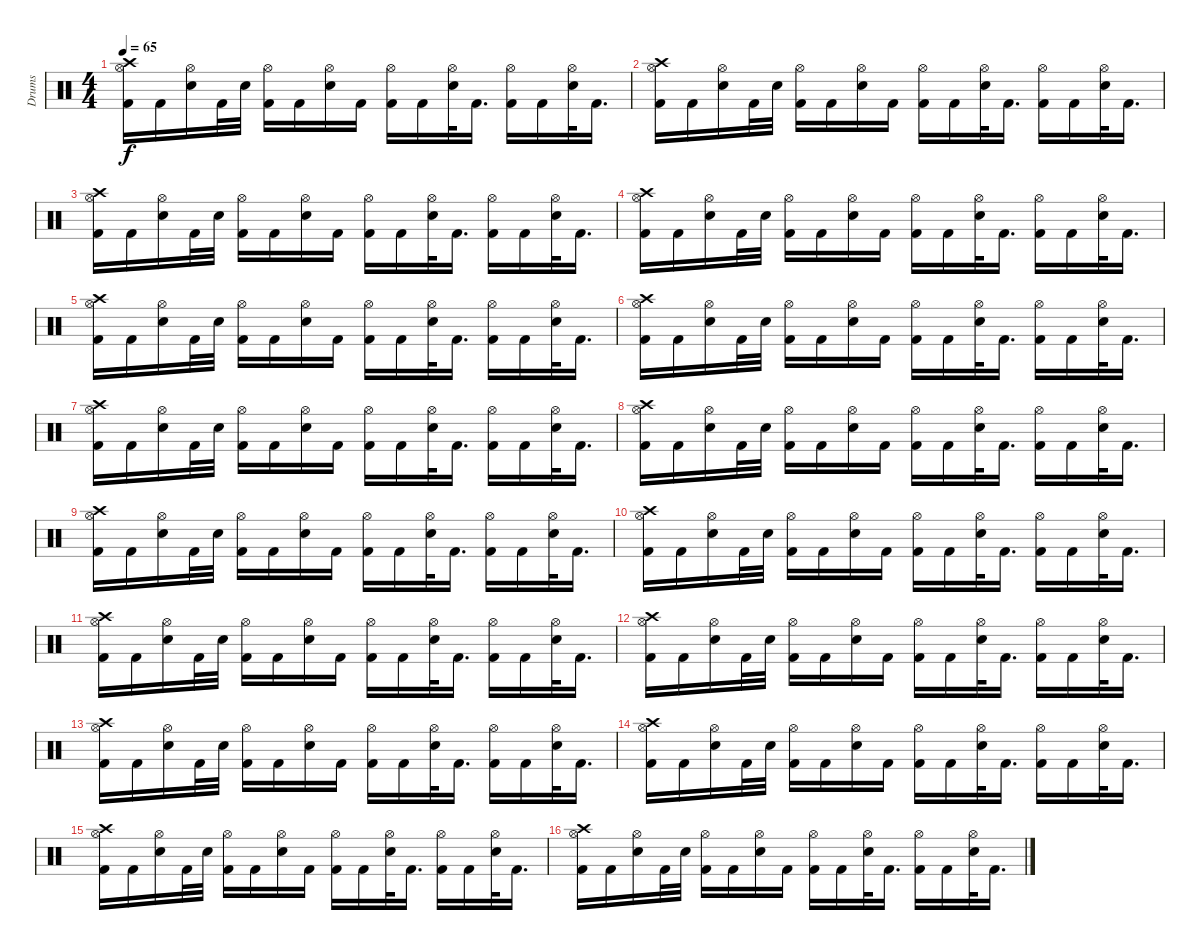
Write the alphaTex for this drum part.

\track ("Drums" "Drums") {instrument percussion}
\staff {score}
\articulation defaults
\ts (4 4)
\tempo 65
\clef neutral
\ks c
("Crash high (hit)" "Hi-Hat (open)" "Kick (hit) 2").16{dy f} "Kick (hit) 2".16 ("Hi-Hat (open)" "Snare (hit) 2").16 "Kick (hit) 2".32 "Snare (hit) 2".32 ("Hi-Hat (open)" "Kick (hit) 2").16 "Kick (hit) 2".16 ("Hi-Hat (open)" "Snare (hit) 2").16 "Kick (hit) 2".16 ("Hi-Hat (open)" "Kick (hit) 2").16 "Kick (hit) 2".16 ("Hi-Hat (open)" "Snare (hit) 2").32 "Kick (hit) 2".16{d} ("Hi-Hat (open)" "Kick (hit) 2").16 "Kick (hit) 2".16 ("Hi-Hat (open)" "Snare (hit) 2").32 "Kick (hit) 2".16{d} |
("Crash high (hit)" "Hi-Hat (open)" "Kick (hit) 2").16 "Kick (hit) 2".16 ("Hi-Hat (open)" "Snare (hit) 2").16 "Kick (hit) 2".32 "Snare (hit) 2".32 ("Hi-Hat (open)" "Kick (hit) 2").16 "Kick (hit) 2".16 ("Hi-Hat (open)" "Snare (hit) 2").16 "Kick (hit) 2".16 ("Hi-Hat (open)" "Kick (hit) 2").16 "Kick (hit) 2".16 ("Hi-Hat (open)" "Snare (hit) 2").32 "Kick (hit) 2".16{d} ("Hi-Hat (open)" "Kick (hit) 2").16 "Kick (hit) 2".16 ("Hi-Hat (open)" "Snare (hit) 2").32 "Kick (hit) 2".16{d} |
("Crash high (hit)" "Hi-Hat (open)" "Kick (hit) 2").16 "Kick (hit) 2".16 ("Hi-Hat (open)" "Snare (hit) 2").16 "Kick (hit) 2".32 "Snare (hit) 2".32 ("Hi-Hat (open)" "Kick (hit) 2").16 "Kick (hit) 2".16 ("Hi-Hat (open)" "Snare (hit) 2").16 "Kick (hit) 2".16 ("Hi-Hat (open)" "Kick (hit) 2").16 "Kick (hit) 2".16 ("Hi-Hat (open)" "Snare (hit) 2").32 "Kick (hit) 2".16{d} ("Hi-Hat (open)" "Kick (hit) 2").16 "Kick (hit) 2".16 ("Hi-Hat (open)" "Snare (hit) 2").32 "Kick (hit) 2".16{d} |
("Crash high (hit)" "Hi-Hat (open)" "Kick (hit) 2").16 "Kick (hit) 2".16 ("Hi-Hat (open)" "Snare (hit) 2").16 "Kick (hit) 2".32 "Snare (hit) 2".32 ("Hi-Hat (open)" "Kick (hit) 2").16 "Kick (hit) 2".16 ("Hi-Hat (open)" "Snare (hit) 2").16 "Kick (hit) 2".16 ("Hi-Hat (open)" "Kick (hit) 2").16 "Kick (hit) 2".16 ("Hi-Hat (open)" "Snare (hit) 2").32 "Kick (hit) 2".16{d} ("Hi-Hat (open)" "Kick (hit) 2").16 "Kick (hit) 2".16 ("Hi-Hat (open)" "Snare (hit) 2").32 "Kick (hit) 2".16{d} |
("Crash high (hit)" "Hi-Hat (open)" "Kick (hit) 2").16 "Kick (hit) 2".16 ("Hi-Hat (open)" "Snare (hit) 2").16 "Kick (hit) 2".32 "Snare (hit) 2".32 ("Hi-Hat (open)" "Kick (hit) 2").16 "Kick (hit) 2".16 ("Hi-Hat (open)" "Snare (hit) 2").16 "Kick (hit) 2".16 ("Hi-Hat (open)" "Kick (hit) 2").16 "Kick (hit) 2".16 ("Hi-Hat (open)" "Snare (hit) 2").32 "Kick (hit) 2".16{d} ("Hi-Hat (open)" "Kick (hit) 2").16 "Kick (hit) 2".16 ("Hi-Hat (open)" "Snare (hit) 2").32 "Kick (hit) 2".16{d} |
("Crash high (hit)" "Hi-Hat (open)" "Kick (hit) 2").16 "Kick (hit) 2".16 ("Hi-Hat (open)" "Snare (hit) 2").16 "Kick (hit) 2".32 "Snare (hit) 2".32 ("Hi-Hat (open)" "Kick (hit) 2").16 "Kick (hit) 2".16 ("Hi-Hat (open)" "Snare (hit) 2").16 "Kick (hit) 2".16 ("Hi-Hat (open)" "Kick (hit) 2").16 "Kick (hit) 2".16 ("Hi-Hat (open)" "Snare (hit) 2").32 "Kick (hit) 2".16{d} ("Hi-Hat (open)" "Kick (hit) 2").16 "Kick (hit) 2".16 ("Hi-Hat (open)" "Snare (hit) 2").32 "Kick (hit) 2".16{d} |
("Crash high (hit)" "Hi-Hat (open)" "Kick (hit) 2").16 "Kick (hit) 2".16 ("Hi-Hat (open)" "Snare (hit) 2").16 "Kick (hit) 2".32 "Snare (hit) 2".32 ("Hi-Hat (open)" "Kick (hit) 2").16 "Kick (hit) 2".16 ("Hi-Hat (open)" "Snare (hit) 2").16 "Kick (hit) 2".16 ("Hi-Hat (open)" "Kick (hit) 2").16 "Kick (hit) 2".16 ("Hi-Hat (open)" "Snare (hit) 2").32 "Kick (hit) 2".16{d} ("Hi-Hat (open)" "Kick (hit) 2").16 "Kick (hit) 2".16 ("Hi-Hat (open)" "Snare (hit) 2").32 "Kick (hit) 2".16{d} |
("Crash high (hit)" "Hi-Hat (open)" "Kick (hit) 2").16 "Kick (hit) 2".16 ("Hi-Hat (open)" "Snare (hit) 2").16 "Kick (hit) 2".32 "Snare (hit) 2".32 ("Hi-Hat (open)" "Kick (hit) 2").16 "Kick (hit) 2".16 ("Hi-Hat (open)" "Snare (hit) 2").16 "Kick (hit) 2".16 ("Hi-Hat (open)" "Kick (hit) 2").16 "Kick (hit) 2".16 ("Hi-Hat (open)" "Snare (hit) 2").32 "Kick (hit) 2".16{d} ("Hi-Hat (open)" "Kick (hit) 2").16 "Kick (hit) 2".16 ("Hi-Hat (open)" "Snare (hit) 2").32 "Kick (hit) 2".16{d} |
("Crash high (hit)" "Hi-Hat (open)" "Kick (hit) 2").16 "Kick (hit) 2".16 ("Hi-Hat (open)" "Snare (hit) 2").16 "Kick (hit) 2".32 "Snare (hit) 2".32 ("Hi-Hat (open)" "Kick (hit) 2").16 "Kick (hit) 2".16 ("Hi-Hat (open)" "Snare (hit) 2").16 "Kick (hit) 2".16 ("Hi-Hat (open)" "Kick (hit) 2").16 "Kick (hit) 2".16 ("Hi-Hat (open)" "Snare (hit) 2").32 "Kick (hit) 2".16{d} ("Hi-Hat (open)" "Kick (hit) 2").16 "Kick (hit) 2".16 ("Hi-Hat (open)" "Snare (hit) 2").32 "Kick (hit) 2".16{d} |
("Crash high (hit)" "Hi-Hat (open)" "Kick (hit) 2").16 "Kick (hit) 2".16 ("Hi-Hat (open)" "Snare (hit) 2").16 "Kick (hit) 2".32 "Snare (hit) 2".32 ("Hi-Hat (open)" "Kick (hit) 2").16 "Kick (hit) 2".16 ("Hi-Hat (open)" "Snare (hit) 2").16 "Kick (hit) 2".16 ("Hi-Hat (open)" "Kick (hit) 2").16 "Kick (hit) 2".16 ("Hi-Hat (open)" "Snare (hit) 2").32 "Kick (hit) 2".16{d} ("Hi-Hat (open)" "Kick (hit) 2").16 "Kick (hit) 2".16 ("Hi-Hat (open)" "Snare (hit) 2").32 "Kick (hit) 2".16{d} |
("Crash high (hit)" "Hi-Hat (open)" "Kick (hit) 2").16 "Kick (hit) 2".16 ("Hi-Hat (open)" "Snare (hit) 2").16 "Kick (hit) 2".32 "Snare (hit) 2".32 ("Hi-Hat (open)" "Kick (hit) 2").16 "Kick (hit) 2".16 ("Hi-Hat (open)" "Snare (hit) 2").16 "Kick (hit) 2".16 ("Hi-Hat (open)" "Kick (hit) 2").16 "Kick (hit) 2".16 ("Hi-Hat (open)" "Snare (hit) 2").32 "Kick (hit) 2".16{d} ("Hi-Hat (open)" "Kick (hit) 2").16 "Kick (hit) 2".16 ("Hi-Hat (open)" "Snare (hit) 2").32 "Kick (hit) 2".16{d} |
("Crash high (hit)" "Hi-Hat (open)" "Kick (hit) 2").16 "Kick (hit) 2".16 ("Hi-Hat (open)" "Snare (hit) 2").16 "Kick (hit) 2".32 "Snare (hit) 2".32 ("Hi-Hat (open)" "Kick (hit) 2").16 "Kick (hit) 2".16 ("Hi-Hat (open)" "Snare (hit) 2").16 "Kick (hit) 2".16 ("Hi-Hat (open)" "Kick (hit) 2").16 "Kick (hit) 2".16 ("Hi-Hat (open)" "Snare (hit) 2").32 "Kick (hit) 2".16{d} ("Hi-Hat (open)" "Kick (hit) 2").16 "Kick (hit) 2".16 ("Hi-Hat (open)" "Snare (hit) 2").32 "Kick (hit) 2".16{d} |
("Crash high (hit)" "Hi-Hat (open)" "Kick (hit) 2").16 "Kick (hit) 2".16 ("Hi-Hat (open)" "Snare (hit) 2").16 "Kick (hit) 2".32 "Snare (hit) 2".32 ("Hi-Hat (open)" "Kick (hit) 2").16 "Kick (hit) 2".16 ("Hi-Hat (open)" "Snare (hit) 2").16 "Kick (hit) 2".16 ("Hi-Hat (open)" "Kick (hit) 2").16 "Kick (hit) 2".16 ("Hi-Hat (open)" "Snare (hit) 2").32 "Kick (hit) 2".16{d} ("Hi-Hat (open)" "Kick (hit) 2").16 "Kick (hit) 2".16 ("Hi-Hat (open)" "Snare (hit) 2").32 "Kick (hit) 2".16{d} |
("Crash high (hit)" "Hi-Hat (open)" "Kick (hit) 2").16 "Kick (hit) 2".16 ("Hi-Hat (open)" "Snare (hit) 2").16 "Kick (hit) 2".32 "Snare (hit) 2".32 ("Hi-Hat (open)" "Kick (hit) 2").16 "Kick (hit) 2".16 ("Hi-Hat (open)" "Snare (hit) 2").16 "Kick (hit) 2".16 ("Hi-Hat (open)" "Kick (hit) 2").16 "Kick (hit) 2".16 ("Hi-Hat (open)" "Snare (hit) 2").32 "Kick (hit) 2".16{d} ("Hi-Hat (open)" "Kick (hit) 2").16 "Kick (hit) 2".16 ("Hi-Hat (open)" "Snare (hit) 2").32 "Kick (hit) 2".16{d} |
("Crash high (hit)" "Hi-Hat (open)" "Kick (hit) 2").16 "Kick (hit) 2".16 ("Hi-Hat (open)" "Snare (hit) 2").16 "Kick (hit) 2".32 "Snare (hit) 2".32 ("Hi-Hat (open)" "Kick (hit) 2").16 "Kick (hit) 2".16 ("Hi-Hat (open)" "Snare (hit) 2").16 "Kick (hit) 2".16 ("Hi-Hat (open)" "Kick (hit) 2").16 "Kick (hit) 2".16 ("Hi-Hat (open)" "Snare (hit) 2").32 "Kick (hit) 2".16{d} ("Hi-Hat (open)" "Kick (hit) 2").16 "Kick (hit) 2".16 ("Hi-Hat (open)" "Snare (hit) 2").32 "Kick (hit) 2".16{d} |
("Crash high (hit)" "Hi-Hat (open)" "Kick (hit) 2").16 "Kick (hit) 2".16 ("Hi-Hat (open)" "Snare (hit) 2").16 "Kick (hit) 2".32 "Snare (hit) 2".32 ("Hi-Hat (open)" "Kick (hit) 2").16 "Kick (hit) 2".16 ("Hi-Hat (open)" "Snare (hit) 2").16 "Kick (hit) 2".16 ("Hi-Hat (open)" "Kick (hit) 2").16 "Kick (hit) 2".16 ("Hi-Hat (open)" "Snare (hit) 2").32 "Kick (hit) 2".16{d} ("Hi-Hat (open)" "Kick (hit) 2").16 "Kick (hit) 2".16 ("Hi-Hat (open)" "Snare (hit) 2").32 "Kick (hit) 2".16{d}
